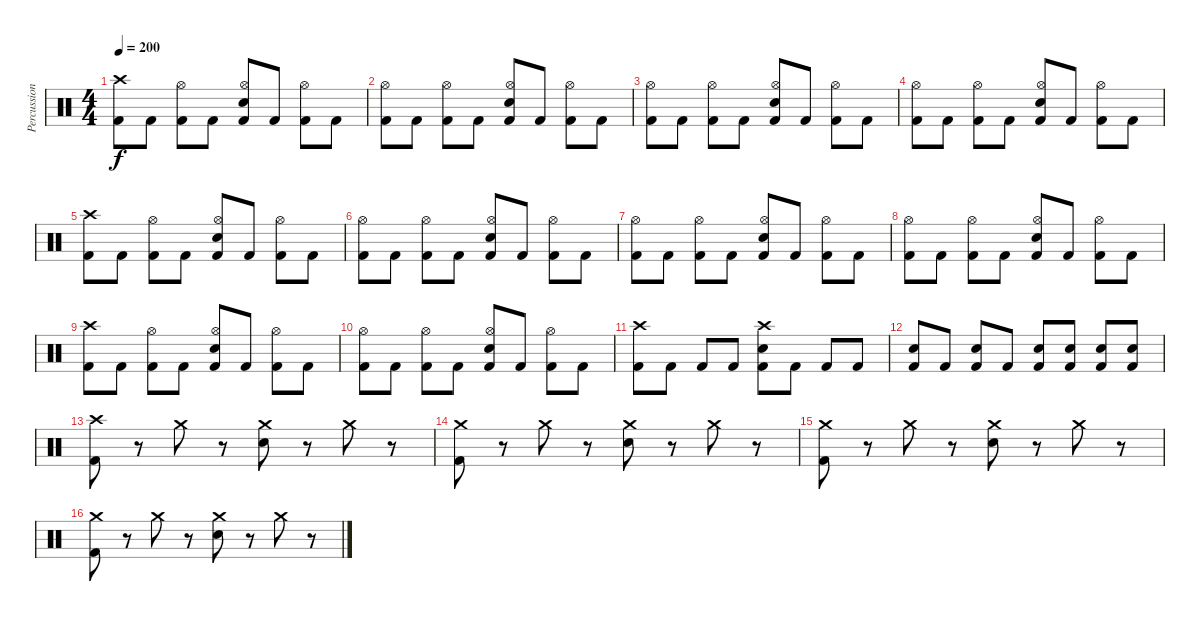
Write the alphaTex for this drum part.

\track ("Percussion" "Percussion") {instrument percussion}
\staff {score}
\articulation defaults
\ts (4 4)
\tempo 200
\clef neutral
\ks c
("Crash high (hit)" "Kick (hit) 2").8{dy f} "Kick (hit) 2".8 ("Hi-Hat (open)" "Kick (hit) 2").8 "Kick (hit) 2".8 ("Hi-Hat (open)" "Snare (hit) 2" "Kick (hit) 2").8 "Kick (hit) 2".8 ("Hi-Hat (open)" "Kick (hit) 2").8 "Kick (hit) 2".8 |
("Hi-Hat (open)" "Kick (hit) 2").8 "Kick (hit) 2".8 ("Hi-Hat (open)" "Kick (hit) 2").8 "Kick (hit) 2".8 ("Hi-Hat (open)" "Snare (hit) 2" "Kick (hit) 2").8 "Kick (hit) 2".8 ("Hi-Hat (open)" "Kick (hit) 2").8 "Kick (hit) 2".8 |
("Hi-Hat (open)" "Kick (hit) 2").8 "Kick (hit) 2".8 ("Hi-Hat (open)" "Kick (hit) 2").8 "Kick (hit) 2".8 ("Hi-Hat (open)" "Snare (hit) 2" "Kick (hit) 2").8 "Kick (hit) 2".8 ("Hi-Hat (open)" "Kick (hit) 2").8 "Kick (hit) 2".8 |
("Hi-Hat (open)" "Kick (hit) 2").8 "Kick (hit) 2".8 ("Hi-Hat (open)" "Kick (hit) 2").8 "Kick (hit) 2".8 ("Hi-Hat (open)" "Snare (hit) 2" "Kick (hit) 2").8 "Kick (hit) 2".8 ("Hi-Hat (open)" "Kick (hit) 2").8 "Kick (hit) 2".8 |
("Crash high (hit)" "Kick (hit) 2").8 "Kick (hit) 2".8 ("Hi-Hat (open)" "Kick (hit) 2").8 "Kick (hit) 2".8 ("Hi-Hat (open)" "Snare (hit) 2" "Kick (hit) 2").8 "Kick (hit) 2".8 ("Hi-Hat (open)" "Kick (hit) 2").8 "Kick (hit) 2".8 |
("Hi-Hat (open)" "Kick (hit) 2").8 "Kick (hit) 2".8 ("Hi-Hat (open)" "Kick (hit) 2").8 "Kick (hit) 2".8 ("Hi-Hat (open)" "Snare (hit) 2" "Kick (hit) 2").8 "Kick (hit) 2".8 ("Hi-Hat (open)" "Kick (hit) 2").8 "Kick (hit) 2".8 |
("Hi-Hat (open)" "Kick (hit) 2").8 "Kick (hit) 2".8 ("Hi-Hat (open)" "Kick (hit) 2").8 "Kick (hit) 2".8 ("Hi-Hat (open)" "Snare (hit) 2" "Kick (hit) 2").8 "Kick (hit) 2".8 ("Hi-Hat (open)" "Kick (hit) 2").8 "Kick (hit) 2".8 |
("Hi-Hat (open)" "Kick (hit) 2").8 "Kick (hit) 2".8 ("Hi-Hat (open)" "Kick (hit) 2").8 "Kick (hit) 2".8 ("Hi-Hat (open)" "Snare (hit) 2" "Kick (hit) 2").8 "Kick (hit) 2".8 ("Hi-Hat (open)" "Kick (hit) 2").8 "Kick (hit) 2".8 |
("Crash high (hit)" "Kick (hit) 2").8 "Kick (hit) 2".8 ("Hi-Hat (open)" "Kick (hit) 2").8 "Kick (hit) 2".8 ("Hi-Hat (open)" "Snare (hit) 2" "Kick (hit) 2").8 "Kick (hit) 2".8 ("Hi-Hat (open)" "Kick (hit) 2").8 "Kick (hit) 2".8 |
("Hi-Hat (open)" "Kick (hit) 2").8 "Kick (hit) 2".8 ("Hi-Hat (open)" "Kick (hit) 2").8 "Kick (hit) 2".8 ("Hi-Hat (open)" "Snare (hit) 2" "Kick (hit) 2").8 "Kick (hit) 2".8 ("Hi-Hat (open)" "Kick (hit) 2").8 "Kick (hit) 2".8 |
("Crash high (hit)" "Kick (hit) 2").8 "Kick (hit) 2".8 "Kick (hit) 2".8 "Kick (hit) 2".8 ("Crash high (hit)" "Snare (hit) 2" "Kick (hit) 2").8 "Kick (hit) 2".8 "Kick (hit) 2".8 "Kick (hit) 2".8 |
("Snare (hit) 2" "Kick (hit) 2").8 "Kick (hit) 2".8 ("Snare (hit) 2" "Kick (hit) 2").8 "Kick (hit) 2".8 ("Snare (hit) 2" "Kick (hit) 2").8 ("Snare (hit) 2" "Kick (hit) 2").8 ("Snare (hit) 2" "Kick (hit) 2").8 ("Snare (hit) 2" "Kick (hit) 2").8 |
("Crash high (hit)" "Kick (hit) 2").8 r.8 "Crash medium (hit)".8 r.8 ("Crash medium (hit)" "Snare (hit) 2").8 r.8 "Crash medium (hit)".8 r.8 |
("Crash medium (hit)" "Kick (hit) 2").8 r.8 "Crash medium (hit)".8 r.8 ("Crash medium (hit)" "Snare (hit) 2").8 r.8 "Crash medium (hit)".8 r.8 |
("Crash medium (hit)" "Kick (hit) 2").8 r.8 "Crash medium (hit)".8 r.8 ("Crash medium (hit)" "Snare (hit) 2").8 r.8 "Crash medium (hit)".8 r.8 |
("Crash medium (hit)" "Kick (hit) 2").8 r.8 "Crash medium (hit)".8 r.8 ("Crash medium (hit)" "Snare (hit) 2").8 r.8 "Crash medium (hit)".8 r.8
